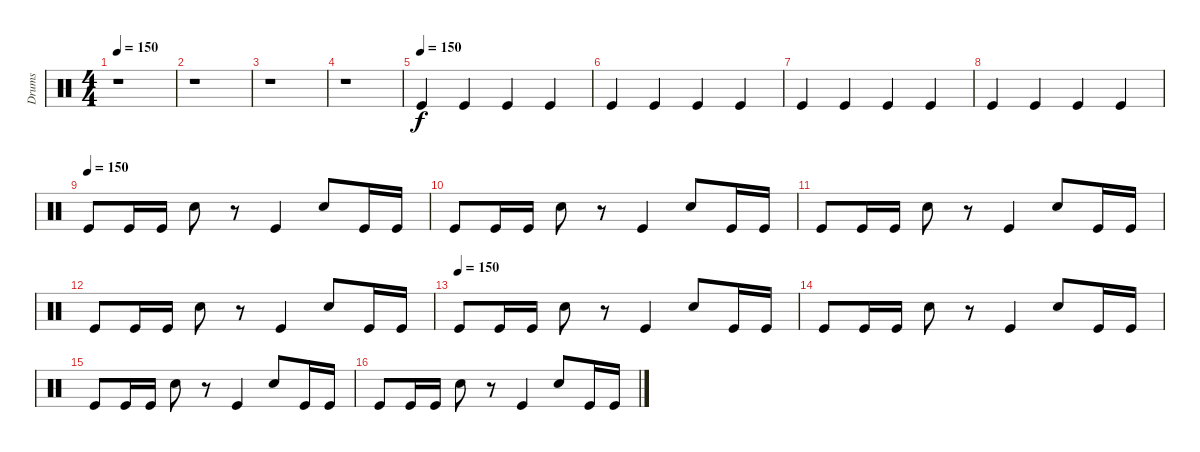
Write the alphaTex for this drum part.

\track ("Drums" "Drums") {instrument percussion}
\staff {score}
\articulation defaults
\ts (4 4)
\tempo 150
\clef neutral
\ks c
r.1{dy f} |
r.1 |
r.1 |
r.1 |
\tempo (150)
"Kick (hit)".4 "Kick (hit)".4 "Kick (hit)".4 "Kick (hit)".4 |
"Kick (hit)".4 "Kick (hit)".4 "Kick (hit)".4 "Kick (hit)".4 |
"Kick (hit)".4 "Kick (hit)".4 "Kick (hit)".4 "Kick (hit)".4 |
"Kick (hit)".4 "Kick (hit)".4 "Kick (hit)".4 "Kick (hit)".4 |
\tempo (150)
"Kick (hit)".8 "Kick (hit)".16 "Kick (hit)".16 "Snare (hit) 2".8 r.8 "Kick (hit)".4 "Snare (hit) 2".8 "Kick (hit)".16 "Kick (hit)".16 |
"Kick (hit)".8 "Kick (hit)".16 "Kick (hit)".16 "Snare (hit) 2".8 r.8 "Kick (hit)".4 "Snare (hit) 2".8 "Kick (hit)".16 "Kick (hit)".16 |
"Kick (hit)".8 "Kick (hit)".16 "Kick (hit)".16 "Snare (hit) 2".8 r.8 "Kick (hit)".4 "Snare (hit) 2".8 "Kick (hit)".16 "Kick (hit)".16 |
"Kick (hit)".8 "Kick (hit)".16 "Kick (hit)".16 "Snare (hit) 2".8 r.8 "Kick (hit)".4 "Snare (hit) 2".8 "Kick (hit)".16 "Kick (hit)".16 |
\tempo (150)
"Kick (hit)".8 "Kick (hit)".16 "Kick (hit)".16 "Snare (hit) 2".8 r.8 "Kick (hit)".4 "Snare (hit) 2".8 "Kick (hit)".16 "Kick (hit)".16 |
"Kick (hit)".8 "Kick (hit)".16 "Kick (hit)".16 "Snare (hit) 2".8 r.8 "Kick (hit)".4 "Snare (hit) 2".8 "Kick (hit)".16 "Kick (hit)".16 |
"Kick (hit)".8 "Kick (hit)".16 "Kick (hit)".16 "Snare (hit) 2".8 r.8 "Kick (hit)".4 "Snare (hit) 2".8 "Kick (hit)".16 "Kick (hit)".16 |
"Kick (hit)".8 "Kick (hit)".16 "Kick (hit)".16 "Snare (hit) 2".8 r.8 "Kick (hit)".4 "Snare (hit) 2".8 "Kick (hit)".16 "Kick (hit)".16
